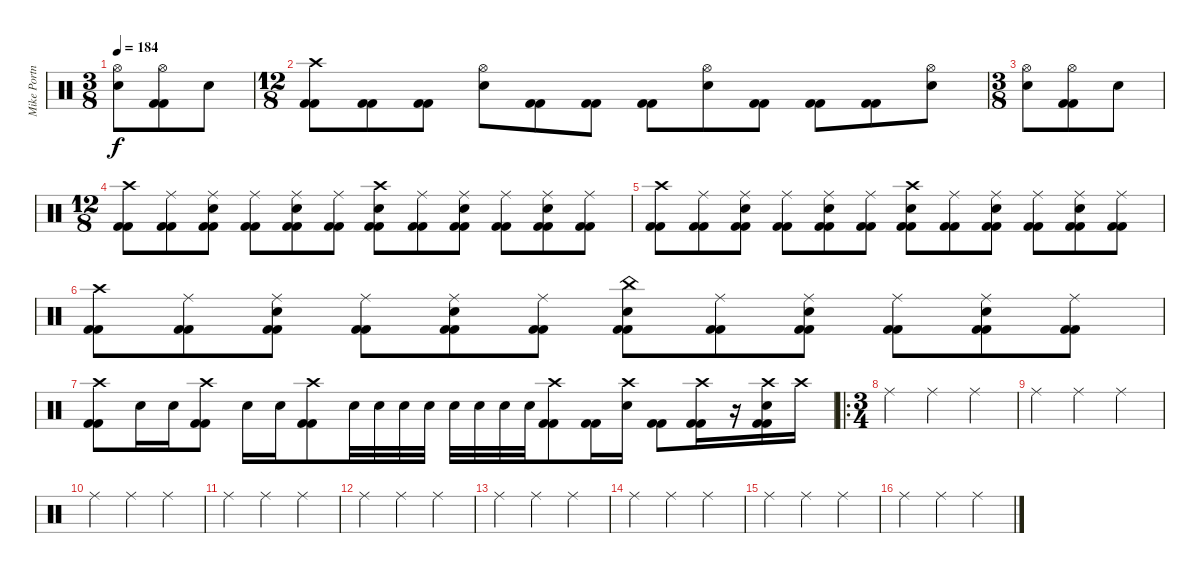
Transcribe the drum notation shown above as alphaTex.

\track ("Mike Portnoy - Drum" "Mike Portn") {instrument percussion}
\staff {score}
\articulation defaults
\ts (3 8)
\tempo 184
\clef neutral
\ks c
("Hi-Hat (open)" "Snare (hit) 2").8{dy f} ("Hi-Hat (open)" "Kick (hit) 2" "Kick (hit) 2").8 "Snare (hit) 2".8 |
\ts (12 8)
("Crash high (hit)" "Kick (hit) 2" "Kick (hit) 2").8 ("Kick (hit) 2" "Kick (hit) 2").8 ("Kick (hit) 2" "Kick (hit) 2").8 ("Hi-Hat (open)" "Snare (hit) 2").8 ("Kick (hit) 2" "Kick (hit) 2").8 ("Kick (hit) 2" "Kick (hit) 2").8 ("Kick (hit) 2" "Kick (hit) 2").8 ("Hi-Hat (open)" "Snare (hit) 2").8 ("Kick (hit) 2" "Kick (hit) 2").8 ("Kick (hit) 2" "Kick (hit) 2").8 ("Kick (hit) 2" "Kick (hit) 2").8 ("Hi-Hat (open)" "Snare (hit) 2").8 |
\ts (3 8)
("Hi-Hat (open)" "Snare (hit) 2").8 ("Hi-Hat (open)" "Kick (hit) 2" "Kick (hit) 2").8 "Snare (hit) 2".8 |
\ts (12 8)
("Crash high (hit)" "Kick (hit) 2" "Kick (hit) 2").8 ("Ride (middle)" "Kick (hit) 2" "Kick (hit) 2").8 ("Ride (middle)" "Snare (hit) 2" "Kick (hit) 2" "Kick (hit) 2").8 ("Ride (middle)" "Kick (hit) 2" "Kick (hit) 2").8 ("Ride (middle)" "Snare (hit) 2" "Kick (hit) 2" "Kick (hit) 2").8 ("Ride (middle)" "Kick (hit) 2" "Kick (hit) 2").8 ("Crash high (hit)" "Snare (hit) 2" "Kick (hit) 2" "Kick (hit) 2").8 ("Ride (middle)" "Kick (hit) 2" "Kick (hit) 2").8 ("Ride (middle)" "Snare (hit) 2" "Kick (hit) 2" "Kick (hit) 2").8 ("Ride (middle)" "Kick (hit) 2" "Kick (hit) 2").8 ("Ride (middle)" "Snare (hit) 2" "Kick (hit) 2" "Kick (hit) 2").8 ("Ride (middle)" "Kick (hit) 2" "Kick (hit) 2").8 |
("Crash high (hit)" "Kick (hit) 2" "Kick (hit) 2").8 ("Ride (middle)" "Kick (hit) 2" "Kick (hit) 2").8 ("Ride (middle)" "Snare (hit) 2" "Kick (hit) 2" "Kick (hit) 2").8 ("Ride (middle)" "Kick (hit) 2" "Kick (hit) 2").8 ("Ride (middle)" "Snare (hit) 2" "Kick (hit) 2" "Kick (hit) 2").8 ("Ride (middle)" "Kick (hit) 2" "Kick (hit) 2").8 ("Crash high (hit)" "Snare (hit) 2" "Kick (hit) 2" "Kick (hit) 2").8 ("Ride (middle)" "Kick (hit) 2" "Kick (hit) 2").8 ("Ride (middle)" "Snare (hit) 2" "Kick (hit) 2" "Kick (hit) 2").8 ("Ride (middle)" "Kick (hit) 2" "Kick (hit) 2").8 ("Ride (middle)" "Snare (hit) 2" "Kick (hit) 2" "Kick (hit) 2").8 ("Ride (middle)" "Kick (hit) 2" "Kick (hit) 2").8 |
("Crash high (hit)" "Kick (hit) 2" "Kick (hit) 2").8 ("Ride (middle)" "Kick (hit) 2" "Kick (hit) 2").8 ("Ride (middle)" "Snare (hit) 2" "Kick (hit) 2" "Kick (hit) 2").8 ("Ride (middle)" "Kick (hit) 2" "Kick (hit) 2").8 ("Ride (middle)" "Snare (hit) 2" "Kick (hit) 2" "Kick (hit) 2").8 ("Ride (middle)" "Kick (hit) 2" "Kick (hit) 2").8 ("China (hit)" "Snare (hit) 2" "Kick (hit) 2" "Kick (hit) 2").8 ("Ride (middle)" "Kick (hit) 2" "Kick (hit) 2").8 ("Ride (middle)" "Snare (hit) 2" "Kick (hit) 2" "Kick (hit) 2").8 ("Ride (middle)" "Kick (hit) 2" "Kick (hit) 2").8 ("Ride (middle)" "Snare (hit) 2" "Kick (hit) 2" "Kick (hit) 2").8 ("Ride (middle)" "Kick (hit) 2" "Kick (hit) 2").8 |
("Crash high (hit)" "Kick (hit) 2" "Kick (hit) 2").8 "Snare (hit) 2".16 "Snare (hit) 2".16 ("Crash high (hit)" "Kick (hit) 2" "Kick (hit) 2").8 "Snare (hit) 2".16 "Snare (hit) 2".16 ("Crash high (hit)" "Kick (hit) 2" "Kick (hit) 2").8 "Snare (hit) 2".32 "Snare (hit) 2".32 "Snare (hit) 2".32 "Snare (hit) 2".32 "Snare (hit) 2".32 "Snare (hit) 2".32 "Snare (hit) 2".32 "Snare (hit) 2".32 ("Crash high (hit)" "Kick (hit) 2" "Kick (hit) 2").8 ("Kick (hit) 2" "Kick (hit) 2").16 ("Crash high (hit)" "Snare (hit) 2").16 ("Kick (hit) 2" "Kick (hit) 2").8 ("Crash high (hit)" "Kick (hit) 2" "Kick (hit) 2").16 r.16 ("Crash high (hit)" "Snare (hit) 2" "Kick (hit) 2" "Kick (hit) 2").16 "Crash high (hit)".16 |
\ro
\ts (3 4)
"Ride (middle)".4 "Ride (middle)".4 "Ride (middle)".4 |
"Ride (middle)".4 "Ride (middle)".4 "Ride (middle)".4 |
"Ride (middle)".4 "Ride (middle)".4 "Ride (middle)".4 |
"Ride (middle)".4 "Ride (middle)".4 "Ride (middle)".4 |
"Ride (middle)".4 "Ride (middle)".4 "Ride (middle)".4 |
"Ride (middle)".4 "Ride (middle)".4 "Ride (middle)".4 |
"Ride (middle)".4 "Ride (middle)".4 "Ride (middle)".4 |
"Ride (middle)".4 "Ride (middle)".4 "Ride (middle)".4 |
"Ride (middle)".4 "Ride (middle)".4 "Ride (middle)".4
